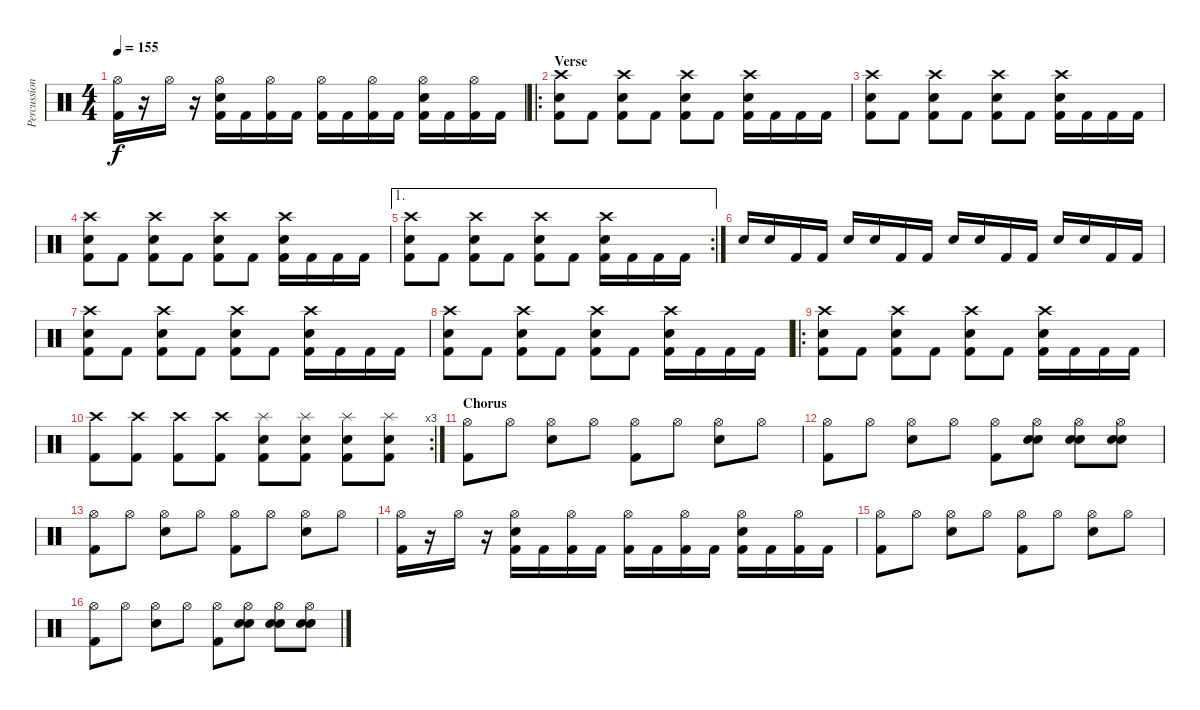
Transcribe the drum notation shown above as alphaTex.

\track ("Percussion" "Percussion") {instrument percussion}
\staff {score}
\articulation defaults
\ts (4 4)
\tempo 155
\clef neutral
\ks c
("Hi-Hat (open)" "Kick (hit) 2").16{dy f} r.16 "Hi-Hat (open)".16 r.16 ("Hi-Hat (open)" "Snare (hit) 2" "Kick (hit) 2").16 "Kick (hit) 2".16 ("Hi-Hat (open)" "Kick (hit) 2").16 "Kick (hit) 2".16 ("Hi-Hat (open)" "Kick (hit) 2").16 "Kick (hit) 2".16 ("Hi-Hat (open)" "Kick (hit) 2").16 "Kick (hit) 2".16 ("Hi-Hat (open)" "Snare (hit) 2" "Kick (hit) 2").16 "Kick (hit) 2".16 ("Hi-Hat (open)" "Kick (hit) 2").16 "Kick (hit) 2".16 |
\ro
\section ("" "Verse")
("Crash high (hit)" "Snare (hit) 2" "Kick (hit) 2").8 "Kick (hit) 2".8 ("Crash high (hit)" "Snare (hit) 2" "Kick (hit) 2").8 "Kick (hit) 2".8 ("Crash high (hit)" "Snare (hit) 2" "Kick (hit) 2").8 "Kick (hit) 2".8 ("Crash high (hit)" "Snare (hit) 2" "Kick (hit) 2").16 "Kick (hit) 2".16 "Kick (hit) 2".16 "Kick (hit) 2".16 |
("Crash high (hit)" "Snare (hit) 2" "Kick (hit) 2").8 "Kick (hit) 2".8 ("Crash high (hit)" "Snare (hit) 2" "Kick (hit) 2").8 "Kick (hit) 2".8 ("Crash high (hit)" "Snare (hit) 2" "Kick (hit) 2").8 "Kick (hit) 2".8 ("Crash high (hit)" "Snare (hit) 2" "Kick (hit) 2").16 "Kick (hit) 2".16 "Kick (hit) 2".16 "Kick (hit) 2".16 |
("Crash high (hit)" "Snare (hit) 2" "Kick (hit) 2").8 "Kick (hit) 2".8 ("Crash high (hit)" "Snare (hit) 2" "Kick (hit) 2").8 "Kick (hit) 2".8 ("Crash high (hit)" "Snare (hit) 2" "Kick (hit) 2").8 "Kick (hit) 2".8 ("Crash high (hit)" "Snare (hit) 2" "Kick (hit) 2").16 "Kick (hit) 2".16 "Kick (hit) 2".16 "Kick (hit) 2".16 |
\ae 1
\rc 2
("Crash high (hit)" "Snare (hit) 2" "Kick (hit) 2").8 "Kick (hit) 2".8 ("Crash high (hit)" "Snare (hit) 2" "Kick (hit) 2").8 "Kick (hit) 2".8 ("Crash high (hit)" "Snare (hit) 2" "Kick (hit) 2").8 "Kick (hit) 2".8 ("Crash high (hit)" "Snare (hit) 2" "Kick (hit) 2").16 "Kick (hit) 2".16 "Kick (hit) 2".16 "Kick (hit) 2".16 |
"Snare (hit) 2".16 "Snare (hit) 2".16 "Kick (hit) 2".16 "Kick (hit) 2".16 "Snare (hit) 2".16 "Snare (hit) 2".16 "Kick (hit) 2".16 "Kick (hit) 2".16 "Snare (hit) 2".16 "Snare (hit) 2".16 "Kick (hit) 2".16 "Kick (hit) 2".16 "Snare (hit) 2".16 "Snare (hit) 2".16 "Kick (hit) 2".16 "Kick (hit) 2".16 |
("Crash high (hit)" "Snare (hit) 2" "Kick (hit) 2").8 "Kick (hit) 2".8 ("Crash high (hit)" "Snare (hit) 2" "Kick (hit) 2").8 "Kick (hit) 2".8 ("Crash high (hit)" "Snare (hit) 2" "Kick (hit) 2").8 "Kick (hit) 2".8 ("Crash high (hit)" "Snare (hit) 2" "Kick (hit) 2").16 "Kick (hit) 2".16 "Kick (hit) 2".16 "Kick (hit) 2".16 |
("Crash high (hit)" "Snare (hit) 2" "Kick (hit) 2").8 "Kick (hit) 2".8 ("Crash high (hit)" "Snare (hit) 2" "Kick (hit) 2").8 "Kick (hit) 2".8 ("Crash high (hit)" "Snare (hit) 2" "Kick (hit) 2").8 "Kick (hit) 2".8 ("Crash high (hit)" "Snare (hit) 2" "Kick (hit) 2").16 "Kick (hit) 2".16 "Kick (hit) 2".16 "Kick (hit) 2".16 |
\ro
("Crash high (hit)" "Snare (hit) 2" "Kick (hit) 2").8 "Kick (hit) 2".8 ("Crash high (hit)" "Snare (hit) 2" "Kick (hit) 2").8 "Kick (hit) 2".8 ("Crash high (hit)" "Snare (hit) 2" "Kick (hit) 2").8 "Kick (hit) 2".8 ("Crash high (hit)" "Snare (hit) 2" "Kick (hit) 2").16 "Kick (hit) 2".16 "Kick (hit) 2".16 "Kick (hit) 2".16 |
\rc 3
("Crash high (hit)" "Kick (hit) 2").8 ("Crash high (hit)" "Kick (hit) 2").8 ("Crash high (hit)" "Kick (hit) 2").8 ("Crash high (hit)" "Kick (hit) 2").8 ("Splash (hit)" "Snare (hit) 2" "Kick (hit) 2").8 ("Splash (hit)" "Snare (hit) 2" "Kick (hit) 2").8 ("Splash (hit)" "Snare (hit) 2" "Kick (hit) 2").8 ("Splash (hit)" "Snare (hit) 2" "Kick (hit) 2").8 |
\section ("" "Chorus")
("Hi-Hat (open)" "Kick (hit) 2").8 "Hi-Hat (open)".8 ("Hi-Hat (open)" "Snare (hit) 2").8 "Hi-Hat (open)".8 ("Hi-Hat (open)" "Kick (hit) 2").8 "Hi-Hat (open)".8 ("Hi-Hat (open)" "Snare (hit) 2").8 "Hi-Hat (open)".8 |
("Hi-Hat (open)" "Kick (hit) 2").8 "Hi-Hat (open)".8 ("Hi-Hat (open)" "Snare (hit) 2").8 "Hi-Hat (open)".8 ("Hi-Hat (open)" "Kick (hit) 2").8 ("Hi-Hat (open)" "Snare (hit) 2" "Snare (hit) 2").8 ("Hi-Hat (open)" "Snare (hit) 2" "Snare (hit) 2").8 ("Hi-Hat (open)" "Snare (hit) 2" "Snare (hit) 2").8 |
("Hi-Hat (open)" "Kick (hit) 2").8 "Hi-Hat (open)".8 ("Hi-Hat (open)" "Snare (hit) 2").8 "Hi-Hat (open)".8 ("Hi-Hat (open)" "Kick (hit) 2").8 "Hi-Hat (open)".8 ("Hi-Hat (open)" "Snare (hit) 2").8 "Hi-Hat (open)".8 |
("Hi-Hat (open)" "Kick (hit) 2").16 r.16 "Hi-Hat (open)".16 r.16 ("Hi-Hat (open)" "Snare (hit) 2" "Kick (hit) 2").16 "Kick (hit) 2".16 ("Hi-Hat (open)" "Kick (hit) 2").16 "Kick (hit) 2".16 ("Hi-Hat (open)" "Kick (hit) 2").16 "Kick (hit) 2".16 ("Hi-Hat (open)" "Kick (hit) 2").16 "Kick (hit) 2".16 ("Hi-Hat (open)" "Snare (hit) 2" "Kick (hit) 2").16 "Kick (hit) 2".16 ("Hi-Hat (open)" "Kick (hit) 2").16 "Kick (hit) 2".16 |
("Hi-Hat (open)" "Kick (hit) 2").8 "Hi-Hat (open)".8 ("Hi-Hat (open)" "Snare (hit) 2").8 "Hi-Hat (open)".8 ("Hi-Hat (open)" "Kick (hit) 2").8 "Hi-Hat (open)".8 ("Hi-Hat (open)" "Snare (hit) 2").8 "Hi-Hat (open)".8 |
("Hi-Hat (open)" "Kick (hit) 2").8 "Hi-Hat (open)".8 ("Hi-Hat (open)" "Snare (hit) 2").8 "Hi-Hat (open)".8 ("Hi-Hat (open)" "Kick (hit) 2").8 ("Hi-Hat (open)" "Snare (hit) 2" "Snare (hit) 2").8 ("Hi-Hat (open)" "Snare (hit) 2" "Snare (hit) 2").8 ("Hi-Hat (open)" "Snare (hit) 2" "Snare (hit) 2").8
